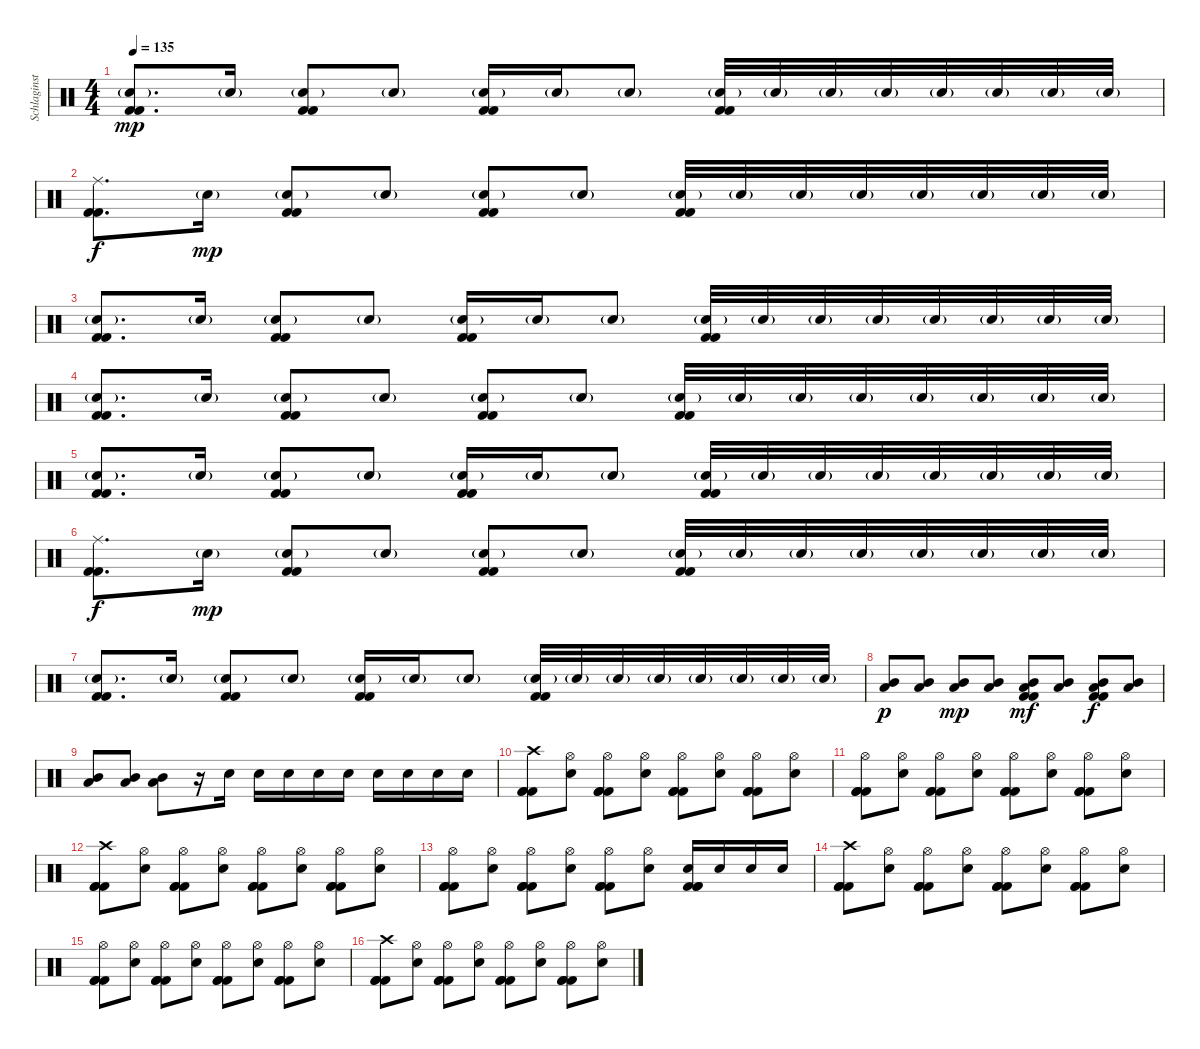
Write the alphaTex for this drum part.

\track ("Schlaginstrumente - Auswahl" "Schlaginst") {instrument percussion}
\staff {score}
\articulation defaults
\ts (4 4)
\tempo 135
\clef neutral
\ks c
("Snare (hit) 2"{g} "Kick (hit) 2" "Kick (hit) 2").8{d dy mp} "Snare (hit) 2"{g}.16 ("Snare (hit) 2"{g} "Kick (hit) 2" "Kick (hit) 2").8 "Snare (hit) 2"{g}.8 ("Snare (hit) 2"{g} "Kick (hit) 2" "Kick (hit) 2").16 "Snare (hit) 2"{g}.16 "Snare (hit) 2"{g}.8 ("Snare (hit) 2"{g} "Kick (hit) 2" "Kick (hit) 2").32 "Snare (hit) 2"{g}.32 "Snare (hit) 2"{g}.32 "Snare (hit) 2"{g}.32 "Snare (hit) 2"{g}.32 "Snare (hit) 2"{g}.32 "Snare (hit) 2"{g}.32 "Snare (hit) 2"{g}.32 |
("Ride (middle)" "Kick (hit) 2" "Kick (hit) 2").8{d dy f} "Snare (hit) 2"{g}.16{dy mp} ("Snare (hit) 2"{g} "Kick (hit) 2" "Kick (hit) 2").8 "Snare (hit) 2"{g}.8 ("Snare (hit) 2"{g} "Kick (hit) 2" "Kick (hit) 2").8 "Snare (hit) 2"{g}.8 ("Snare (hit) 2"{g} "Kick (hit) 2" "Kick (hit) 2").32 "Snare (hit) 2"{g}.32 "Snare (hit) 2"{g}.32 "Snare (hit) 2"{g}.32 "Snare (hit) 2"{g}.32 "Snare (hit) 2"{g}.32 "Snare (hit) 2"{g}.32 "Snare (hit) 2"{g}.32 |
("Snare (hit) 2"{g} "Kick (hit) 2" "Kick (hit) 2").8{d} "Snare (hit) 2"{g}.16 ("Snare (hit) 2"{g} "Kick (hit) 2" "Kick (hit) 2").8 "Snare (hit) 2"{g}.8 ("Snare (hit) 2"{g} "Kick (hit) 2" "Kick (hit) 2").16 "Snare (hit) 2"{g}.16 "Snare (hit) 2"{g}.8 ("Snare (hit) 2"{g} "Kick (hit) 2" "Kick (hit) 2").32 "Snare (hit) 2"{g}.32 "Snare (hit) 2"{g}.32 "Snare (hit) 2"{g}.32 "Snare (hit) 2"{g}.32 "Snare (hit) 2"{g}.32 "Snare (hit) 2"{g}.32 "Snare (hit) 2"{g}.32 |
("Snare (hit) 2"{g} "Kick (hit) 2" "Kick (hit) 2").8{d} "Snare (hit) 2"{g}.16 ("Snare (hit) 2"{g} "Kick (hit) 2" "Kick (hit) 2").8 "Snare (hit) 2"{g}.8 ("Snare (hit) 2"{g} "Kick (hit) 2" "Kick (hit) 2").8 "Snare (hit) 2"{g}.8 ("Snare (hit) 2"{g} "Kick (hit) 2" "Kick (hit) 2").32 "Snare (hit) 2"{g}.32 "Snare (hit) 2"{g}.32 "Snare (hit) 2"{g}.32 "Snare (hit) 2"{g}.32 "Snare (hit) 2"{g}.32 "Snare (hit) 2"{g}.32 "Snare (hit) 2"{g}.32 |
("Snare (hit) 2"{g} "Kick (hit) 2" "Kick (hit) 2").8{d} "Snare (hit) 2"{g}.16 ("Snare (hit) 2"{g} "Kick (hit) 2" "Kick (hit) 2").8 "Snare (hit) 2"{g}.8 ("Snare (hit) 2"{g} "Kick (hit) 2" "Kick (hit) 2").16 "Snare (hit) 2"{g}.16 "Snare (hit) 2"{g}.8 ("Snare (hit) 2"{g} "Kick (hit) 2" "Kick (hit) 2").32 "Snare (hit) 2"{g}.32 "Snare (hit) 2"{g}.32 "Snare (hit) 2"{g}.32 "Snare (hit) 2"{g}.32 "Snare (hit) 2"{g}.32 "Snare (hit) 2"{g}.32 "Snare (hit) 2"{g}.32 |
("Ride (middle)" "Kick (hit) 2" "Kick (hit) 2").8{d dy f} "Snare (hit) 2"{g}.16{dy mp} ("Snare (hit) 2"{g} "Kick (hit) 2" "Kick (hit) 2").8 "Snare (hit) 2"{g}.8 ("Snare (hit) 2"{g} "Kick (hit) 2" "Kick (hit) 2").8 "Snare (hit) 2"{g}.8 ("Snare (hit) 2"{g} "Kick (hit) 2" "Kick (hit) 2").32 "Snare (hit) 2"{g}.32 "Snare (hit) 2"{g}.32 "Snare (hit) 2"{g}.32 "Snare (hit) 2"{g}.32 "Snare (hit) 2"{g}.32 "Snare (hit) 2"{g}.32 "Snare (hit) 2"{g}.32 |
("Snare (hit) 2"{g} "Kick (hit) 2" "Kick (hit) 2").8{d} "Snare (hit) 2"{g}.16 ("Snare (hit) 2"{g} "Kick (hit) 2" "Kick (hit) 2").8 "Snare (hit) 2"{g}.8 ("Snare (hit) 2"{g} "Kick (hit) 2" "Kick (hit) 2").16 "Snare (hit) 2"{g}.16 "Snare (hit) 2"{g}.8 ("Snare (hit) 2"{g} "Kick (hit) 2" "Kick (hit) 2").32 "Snare (hit) 2"{g}.32 "Snare (hit) 2"{g}.32 "Snare (hit) 2"{g}.32 "Snare (hit) 2"{g}.32 "Snare (hit) 2"{g}.32 "Snare (hit) 2"{g}.32 "Snare (hit) 2"{g}.32 |
("Mid Tom (hit)" "Low Tom (hit)").8{dy p} ("Mid Tom (hit)" "Low Tom (hit)").8 ("Mid Tom (hit)" "Low Tom (hit)").8{dy mp} ("Mid Tom (hit)" "Low Tom (hit)").8 ("Mid Tom (hit)" "Low Tom (hit)" "Kick (hit) 2" "Kick (hit) 2").8{dy mf} ("Mid Tom (hit)" "Low Tom (hit)").8 ("Mid Tom (hit)" "Low Tom (hit)" "Kick (hit) 2" "Kick (hit) 2").8{dy f} ("Mid Tom (hit)" "Low Tom (hit)").8 |
("Mid Tom (hit)" "Low Tom (hit)").8 ("Mid Tom (hit)" "Low Tom (hit)").8 ("Mid Tom (hit)" "Low Tom (hit)").8 r.16 "Snare (hit) 2".16 "Snare (hit) 2".16 "Snare (hit) 2".16 "Snare (hit) 2".16 "Snare (hit) 2".16 "Snare (hit) 2".16 "Snare (hit) 2".16 "Snare (hit) 2".16 "Snare (hit) 2".16 |
("Crash high (hit)" "Kick (hit) 2" "Kick (hit) 2" "Kick (hit) 2").8 ("Hi-Hat (open)" "Snare (hit) 2").8 ("Hi-Hat (open)" "Kick (hit) 2" "Kick (hit) 2" "Kick (hit) 2").8 ("Hi-Hat (open)" "Snare (hit) 2").8 ("Hi-Hat (open)" "Kick (hit) 2" "Kick (hit) 2" "Kick (hit) 2").8 ("Hi-Hat (open)" "Snare (hit) 2").8 ("Hi-Hat (open)" "Kick (hit) 2" "Kick (hit) 2" "Kick (hit) 2").8 ("Hi-Hat (open)" "Snare (hit) 2").8 |
("Hi-Hat (open)" "Kick (hit) 2" "Kick (hit) 2" "Kick (hit) 2").8 ("Hi-Hat (open)" "Snare (hit) 2").8 ("Hi-Hat (open)" "Kick (hit) 2" "Kick (hit) 2" "Kick (hit) 2").8 ("Hi-Hat (open)" "Snare (hit) 2").8 ("Hi-Hat (open)" "Kick (hit) 2" "Kick (hit) 2" "Kick (hit) 2").8 ("Hi-Hat (open)" "Snare (hit) 2").8 ("Hi-Hat (open)" "Kick (hit) 2" "Kick (hit) 2" "Kick (hit) 2").8 ("Hi-Hat (open)" "Snare (hit) 2").8 |
("Crash high (hit)" "Kick (hit) 2" "Kick (hit) 2" "Kick (hit) 2").8 ("Hi-Hat (open)" "Snare (hit) 2").8 ("Hi-Hat (open)" "Kick (hit) 2" "Kick (hit) 2" "Kick (hit) 2").8 ("Hi-Hat (open)" "Snare (hit) 2").8 ("Hi-Hat (open)" "Kick (hit) 2" "Kick (hit) 2" "Kick (hit) 2").8 ("Hi-Hat (open)" "Snare (hit) 2").8 ("Hi-Hat (open)" "Kick (hit) 2" "Kick (hit) 2" "Kick (hit) 2").8 ("Hi-Hat (open)" "Snare (hit) 2").8 |
("Hi-Hat (open)" "Kick (hit) 2" "Kick (hit) 2" "Kick (hit) 2").8 ("Hi-Hat (open)" "Snare (hit) 2").8 ("Hi-Hat (open)" "Kick (hit) 2" "Kick (hit) 2" "Kick (hit) 2").8 ("Hi-Hat (open)" "Snare (hit) 2").8 ("Hi-Hat (open)" "Kick (hit) 2" "Kick (hit) 2" "Kick (hit) 2").8 ("Hi-Hat (open)" "Snare (hit) 2").8 ("Snare (hit) 2" "Kick (hit) 2" "Kick (hit) 2" "Kick (hit) 2").16 "Snare (hit) 2".16 "Snare (hit) 2".16 "Snare (hit) 2".16 |
("Crash high (hit)" "Kick (hit) 2" "Kick (hit) 2" "Kick (hit) 2").8 ("Hi-Hat (open)" "Snare (hit) 2").8 ("Hi-Hat (open)" "Kick (hit) 2" "Kick (hit) 2" "Kick (hit) 2").8 ("Hi-Hat (open)" "Snare (hit) 2").8 ("Hi-Hat (open)" "Kick (hit) 2" "Kick (hit) 2" "Kick (hit) 2").8 ("Hi-Hat (open)" "Snare (hit) 2").8 ("Hi-Hat (open)" "Kick (hit) 2" "Kick (hit) 2" "Kick (hit) 2").8 ("Hi-Hat (open)" "Snare (hit) 2").8 |
("Hi-Hat (open)" "Kick (hit) 2" "Kick (hit) 2" "Kick (hit) 2").8 ("Hi-Hat (open)" "Snare (hit) 2").8 ("Hi-Hat (open)" "Kick (hit) 2" "Kick (hit) 2" "Kick (hit) 2").8 ("Hi-Hat (open)" "Snare (hit) 2").8 ("Hi-Hat (open)" "Kick (hit) 2" "Kick (hit) 2" "Kick (hit) 2").8 ("Hi-Hat (open)" "Snare (hit) 2").8 ("Hi-Hat (open)" "Kick (hit) 2" "Kick (hit) 2" "Kick (hit) 2").8 ("Hi-Hat (open)" "Snare (hit) 2").8 |
("Crash high (hit)" "Kick (hit) 2" "Kick (hit) 2" "Kick (hit) 2").8 ("Hi-Hat (open)" "Snare (hit) 2").8 ("Hi-Hat (open)" "Kick (hit) 2" "Kick (hit) 2" "Kick (hit) 2").8 ("Hi-Hat (open)" "Snare (hit) 2").8 ("Hi-Hat (open)" "Kick (hit) 2" "Kick (hit) 2" "Kick (hit) 2").8 ("Hi-Hat (open)" "Snare (hit) 2").8 ("Hi-Hat (open)" "Kick (hit) 2" "Kick (hit) 2" "Kick (hit) 2").8 ("Hi-Hat (open)" "Snare (hit) 2").8
